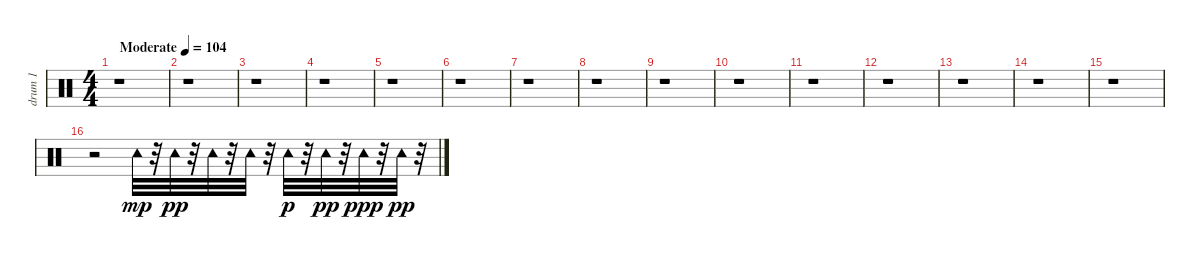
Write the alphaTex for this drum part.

\track ("drum 1" "drum 1") {instrument percussion}
\staff {score}
\articulation defaults
\ts (4 4)
\tempo (104 "Moderate")
\clef neutral
\ks c
r.1{dy mp} |
r.1 |
r.1 |
r.1 |
r.1 |
r.1 |
r.1 |
r.1 |
r.1 |
r.1 |
r.1 |
r.1 |
r.1 |
r.1 |
r.1 |
r.2 "Tambourine (hit)".32 r.32 "Tambourine (hit)".32{dy pp} r.32 "Tambourine (hit)".32 r.32 "Tambourine (hit)".32 r.32 "Tambourine (hit)".32{dy p} r.32 "Tambourine (hit)".32{dy pp} r.32 "Tambourine (hit)".32{dy ppp} r.32 "Tambourine (hit)".32{dy pp} r.32
